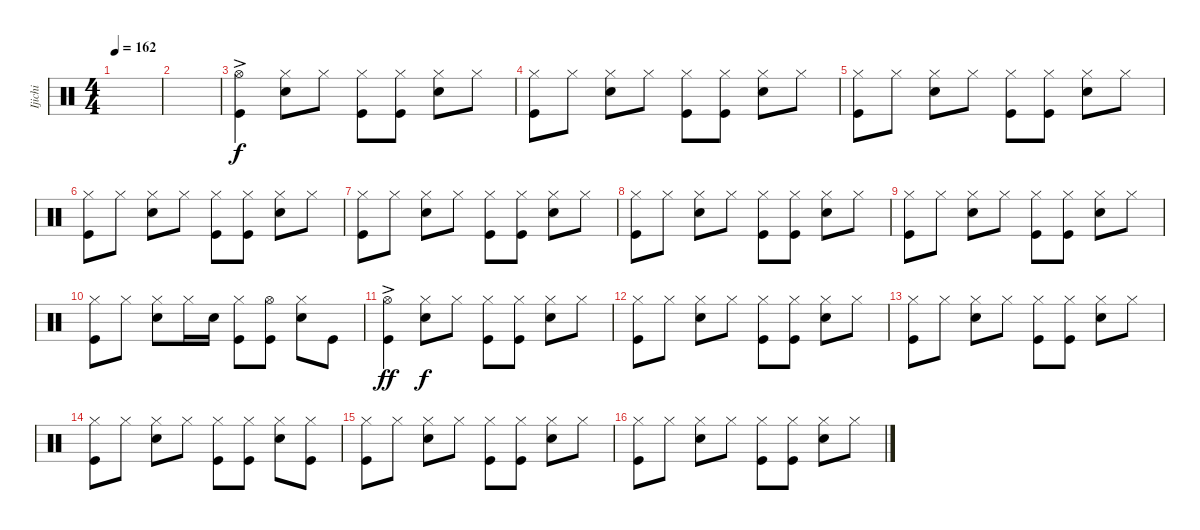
\track ("Ijichi" "Ijichi") {instrument percussion}
\staff {score}
\articulation defaults
\ts (4 4)
\tempo 162
\clef neutral
\ks c
|
|
("Hi-Hat (open)"{ac} "Kick (hit)").4 ("Hi-Hat (closed)" "Snare (hit) 2").8{dy f} "Hi-Hat (closed)".8 ("Hi-Hat (closed)" "Kick (hit)").8 ("Hi-Hat (closed)" "Kick (hit)").8 ("Hi-Hat (closed)" "Snare (hit) 2").8 "Hi-Hat (closed)".8 |
("Hi-Hat (closed)" "Kick (hit)").8 "Hi-Hat (closed)".8 ("Hi-Hat (closed)" "Snare (hit) 2").8 "Hi-Hat (closed)".8 ("Hi-Hat (closed)" "Kick (hit)").8 ("Hi-Hat (closed)" "Kick (hit)").8 ("Hi-Hat (closed)" "Snare (hit) 2").8 "Hi-Hat (closed)".8 |
("Hi-Hat (closed)" "Kick (hit)").8 "Hi-Hat (closed)".8 ("Hi-Hat (closed)" "Snare (hit) 2").8 "Hi-Hat (closed)".8 ("Hi-Hat (closed)" "Kick (hit)").8 ("Hi-Hat (closed)" "Kick (hit)").8 ("Hi-Hat (closed)" "Snare (hit) 2").8 "Hi-Hat (closed)".8 |
("Hi-Hat (closed)" "Kick (hit)").8 "Hi-Hat (closed)".8 ("Hi-Hat (closed)" "Snare (hit) 2").8 "Hi-Hat (closed)".8 ("Hi-Hat (closed)" "Kick (hit)").8 ("Hi-Hat (closed)" "Kick (hit)").8 ("Hi-Hat (closed)" "Snare (hit) 2").8 "Hi-Hat (closed)".8 |
("Hi-Hat (closed)" "Kick (hit)").8 "Hi-Hat (closed)".8 ("Hi-Hat (closed)" "Snare (hit) 2").8 "Hi-Hat (closed)".8 ("Hi-Hat (closed)" "Kick (hit)").8 ("Hi-Hat (closed)" "Kick (hit)").8 ("Hi-Hat (closed)" "Snare (hit) 2").8 "Hi-Hat (closed)".8 |
("Hi-Hat (closed)" "Kick (hit)").8 "Hi-Hat (closed)".8 ("Hi-Hat (closed)" "Snare (hit) 2").8 "Hi-Hat (closed)".8 ("Hi-Hat (closed)" "Kick (hit)").8 ("Hi-Hat (closed)" "Kick (hit)").8 ("Hi-Hat (closed)" "Snare (hit) 2").8 "Hi-Hat (closed)".8 |
("Hi-Hat (closed)" "Kick (hit)").8 "Hi-Hat (closed)".8 ("Hi-Hat (closed)" "Snare (hit) 2").8 "Hi-Hat (closed)".8 ("Hi-Hat (closed)" "Kick (hit)").8 ("Hi-Hat (closed)" "Kick (hit)").8 ("Hi-Hat (closed)" "Snare (hit) 2").8 "Hi-Hat (closed)".8 |
("Hi-Hat (closed)" "Kick (hit)").8 "Hi-Hat (closed)".8 ("Hi-Hat (closed)" "Snare (hit) 2").8 "Hi-Hat (closed)".16 "Snare (hit) 2".16 ("Hi-Hat (closed)" "Kick (hit)").8 ("Hi-Hat (open)" "Kick (hit)").8 ("Hi-Hat (closed)" "Snare (hit) 2").8 "Kick (hit)".8 |
("Hi-Hat (open)"{ac} "Kick (hit)").4{dy ff} ("Hi-Hat (closed)" "Snare (hit) 2").8{dy f} "Hi-Hat (closed)".8 ("Hi-Hat (closed)" "Kick (hit)").8 ("Hi-Hat (closed)" "Kick (hit)").8 ("Hi-Hat (closed)" "Snare (hit) 2").8 "Hi-Hat (closed)".8 |
("Hi-Hat (closed)" "Kick (hit)").8 "Hi-Hat (closed)".8 ("Hi-Hat (closed)" "Snare (hit) 2").8 "Hi-Hat (closed)".8 ("Hi-Hat (closed)" "Kick (hit)").8 ("Hi-Hat (closed)" "Kick (hit)").8 ("Hi-Hat (closed)" "Snare (hit) 2").8 "Hi-Hat (closed)".8 |
("Hi-Hat (closed)" "Kick (hit)").8 "Hi-Hat (closed)".8 ("Hi-Hat (closed)" "Snare (hit) 2").8 "Hi-Hat (closed)".8 ("Hi-Hat (closed)" "Kick (hit)").8 ("Hi-Hat (closed)" "Kick (hit)").8 ("Hi-Hat (closed)" "Snare (hit) 2").8 "Hi-Hat (closed)".8 |
("Hi-Hat (closed)" "Kick (hit)").8 "Hi-Hat (closed)".8 ("Hi-Hat (closed)" "Snare (hit) 2").8 "Hi-Hat (closed)".8 ("Hi-Hat (closed)" "Kick (hit)").8 ("Hi-Hat (closed)" "Kick (hit)").8 ("Hi-Hat (closed)" "Snare (hit) 2").8 ("Hi-Hat (closed)" "Kick (hit)").8 |
("Hi-Hat (closed)" "Kick (hit)").8 "Hi-Hat (closed)".8 ("Hi-Hat (closed)" "Snare (hit) 2").8 "Hi-Hat (closed)".8 ("Hi-Hat (closed)" "Kick (hit)").8 ("Hi-Hat (closed)" "Kick (hit)").8 ("Hi-Hat (closed)" "Snare (hit) 2").8 "Hi-Hat (closed)".8 |
("Hi-Hat (closed)" "Kick (hit)").8 "Hi-Hat (closed)".8 ("Hi-Hat (closed)" "Snare (hit) 2").8 "Hi-Hat (closed)".8 ("Hi-Hat (closed)" "Kick (hit)").8 ("Hi-Hat (closed)" "Kick (hit)").8 ("Hi-Hat (closed)" "Snare (hit) 2").8 "Hi-Hat (closed)".8
